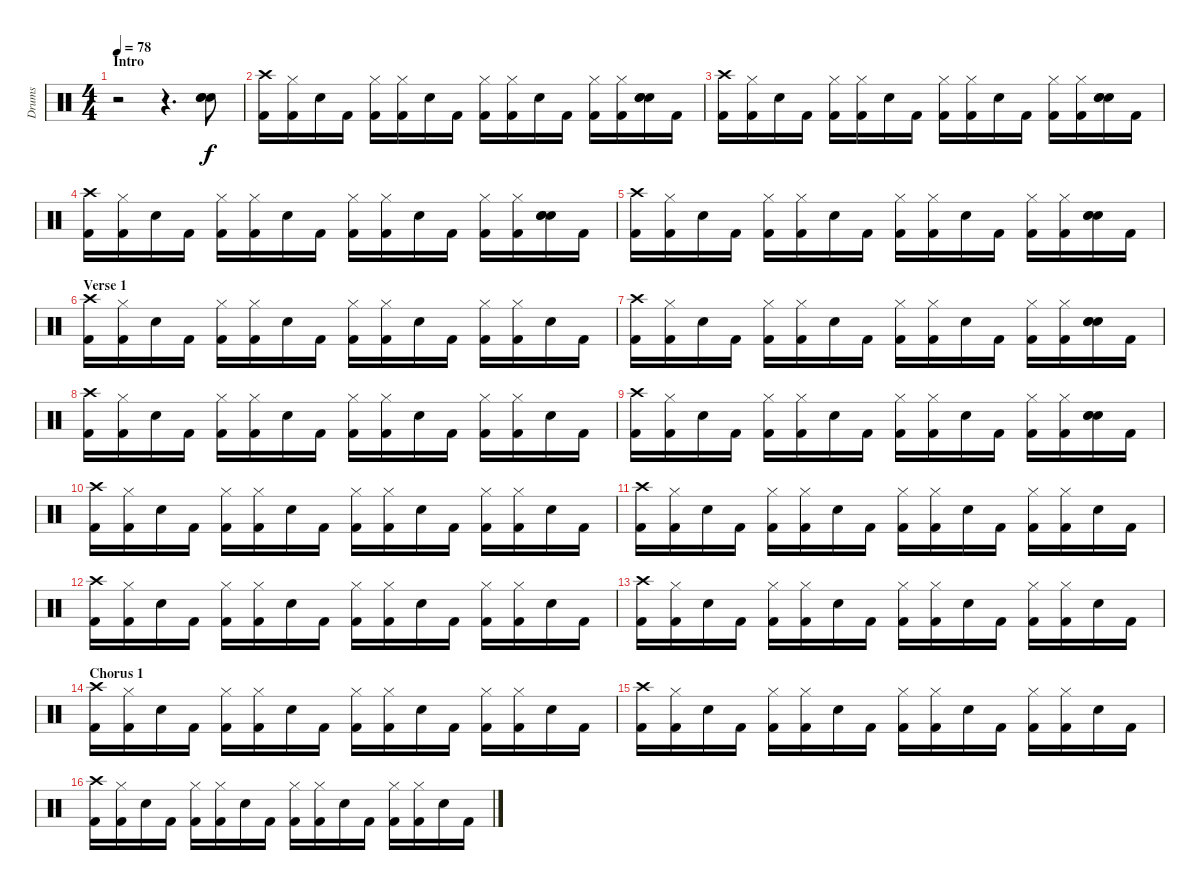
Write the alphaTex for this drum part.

\track ("Drums" "Drums") {instrument percussion}
\staff {score}
\articulation defaults
\ts (4 4)
\section ("" "Intro")
\tempo 78
\clef neutral
\ks c
r.2{dy f} r.4{d} ("Hand Clap (hit)" "Hand Clap (hit)" "Electric Snare (hit)").8 |
("Crash high (hit)" "Kick (hit) 2").16 ("Hi-Hat (closed)" "Kick (hit) 2").16 "Electric Snare (hit)".16 "Kick (hit) 2".16 ("Hi-Hat (closed)" "Kick (hit) 2").16 ("Hi-Hat (closed)" "Kick (hit) 2").16 "Electric Snare (hit)".16 "Kick (hit) 2".16 ("Hi-Hat (closed)" "Kick (hit) 2").16 ("Hi-Hat (closed)" "Kick (hit) 2").16 "Electric Snare (hit)".16 "Kick (hit) 2".16 ("Hi-Hat (closed)" "Kick (hit) 2").16 ("Hi-Hat (closed)" "Kick (hit) 2").16 ("Hand Clap (hit)" "Electric Snare (hit)" "Hand Clap (hit)").16 "Kick (hit) 2".16 |
("Crash high (hit)" "Kick (hit) 2").16 ("Hi-Hat (closed)" "Kick (hit) 2").16 "Electric Snare (hit)".16 "Kick (hit) 2".16 ("Hi-Hat (closed)" "Kick (hit) 2").16 ("Hi-Hat (closed)" "Kick (hit) 2").16 "Electric Snare (hit)".16 "Kick (hit) 2".16 ("Hi-Hat (closed)" "Kick (hit) 2").16 ("Hi-Hat (closed)" "Kick (hit) 2").16 "Electric Snare (hit)".16 "Kick (hit) 2".16 ("Hi-Hat (closed)" "Kick (hit) 2").16 ("Hi-Hat (closed)" "Kick (hit) 2").16 ("Hand Clap (hit)" "Electric Snare (hit)" "Hand Clap (hit)").16 "Kick (hit) 2".16 |
("Crash high (hit)" "Kick (hit) 2").16 ("Hi-Hat (closed)" "Kick (hit) 2").16 "Electric Snare (hit)".16 "Kick (hit) 2".16 ("Hi-Hat (closed)" "Kick (hit) 2").16 ("Hi-Hat (closed)" "Kick (hit) 2").16 "Electric Snare (hit)".16 "Kick (hit) 2".16 ("Hi-Hat (closed)" "Kick (hit) 2").16 ("Hi-Hat (closed)" "Kick (hit) 2").16 "Electric Snare (hit)".16 "Kick (hit) 2".16 ("Hi-Hat (closed)" "Kick (hit) 2").16 ("Hi-Hat (closed)" "Kick (hit) 2").16 ("Hand Clap (hit)" "Electric Snare (hit)" "Hand Clap (hit)").16 "Kick (hit) 2".16 |
("Crash high (hit)" "Kick (hit) 2").16 ("Hi-Hat (closed)" "Kick (hit) 2").16 "Electric Snare (hit)".16 "Kick (hit) 2".16 ("Hi-Hat (closed)" "Kick (hit) 2").16 ("Hi-Hat (closed)" "Kick (hit) 2").16 "Electric Snare (hit)".16 "Kick (hit) 2".16 ("Hi-Hat (closed)" "Kick (hit) 2").16 ("Hi-Hat (closed)" "Kick (hit) 2").16 "Electric Snare (hit)".16 "Kick (hit) 2".16 ("Hi-Hat (closed)" "Kick (hit) 2").16 ("Hi-Hat (closed)" "Kick (hit) 2").16 ("Hand Clap (hit)" "Electric Snare (hit)" "Hand Clap (hit)").16 "Kick (hit) 2".16 |
\section ("" "Verse 1")
("Crash high (hit)" "Kick (hit) 2").16 ("Hi-Hat (closed)" "Kick (hit) 2").16 "Electric Snare (hit)".16 "Kick (hit) 2".16 ("Hi-Hat (closed)" "Kick (hit) 2").16 ("Hi-Hat (closed)" "Kick (hit) 2").16 "Electric Snare (hit)".16 "Kick (hit) 2".16 ("Hi-Hat (closed)" "Kick (hit) 2").16 ("Hi-Hat (closed)" "Kick (hit) 2").16 "Electric Snare (hit)".16 "Kick (hit) 2".16 ("Hi-Hat (closed)" "Kick (hit) 2").16 ("Hi-Hat (closed)" "Kick (hit) 2").16 "Electric Snare (hit)".16 "Kick (hit) 2".16 |
("Crash high (hit)" "Kick (hit) 2").16 ("Hi-Hat (closed)" "Kick (hit) 2").16 "Electric Snare (hit)".16 "Kick (hit) 2".16 ("Hi-Hat (closed)" "Kick (hit) 2").16 ("Hi-Hat (closed)" "Kick (hit) 2").16 "Electric Snare (hit)".16 "Kick (hit) 2".16 ("Hi-Hat (closed)" "Kick (hit) 2").16 ("Hi-Hat (closed)" "Kick (hit) 2").16 "Electric Snare (hit)".16 "Kick (hit) 2".16 ("Hi-Hat (closed)" "Kick (hit) 2").16 ("Hi-Hat (closed)" "Kick (hit) 2").16 ("Hand Clap (hit)" "Electric Snare (hit)" "Hand Clap (hit)").16 "Kick (hit) 2".16 |
("Crash high (hit)" "Kick (hit) 2").16 ("Hi-Hat (closed)" "Kick (hit) 2").16 "Electric Snare (hit)".16 "Kick (hit) 2".16 ("Hi-Hat (closed)" "Kick (hit) 2").16 ("Hi-Hat (closed)" "Kick (hit) 2").16 "Electric Snare (hit)".16 "Kick (hit) 2".16 ("Hi-Hat (closed)" "Kick (hit) 2").16 ("Hi-Hat (closed)" "Kick (hit) 2").16 "Electric Snare (hit)".16 "Kick (hit) 2".16 ("Hi-Hat (closed)" "Kick (hit) 2").16 ("Hi-Hat (closed)" "Kick (hit) 2").16 "Electric Snare (hit)".16 "Kick (hit) 2".16 |
("Crash high (hit)" "Kick (hit) 2").16 ("Hi-Hat (closed)" "Kick (hit) 2").16 "Electric Snare (hit)".16 "Kick (hit) 2".16 ("Hi-Hat (closed)" "Kick (hit) 2").16 ("Hi-Hat (closed)" "Kick (hit) 2").16 "Electric Snare (hit)".16 "Kick (hit) 2".16 ("Hi-Hat (closed)" "Kick (hit) 2").16 ("Hi-Hat (closed)" "Kick (hit) 2").16 "Electric Snare (hit)".16 "Kick (hit) 2".16 ("Hi-Hat (closed)" "Kick (hit) 2").16 ("Hi-Hat (closed)" "Kick (hit) 2").16 ("Hand Clap (hit)" "Electric Snare (hit)" "Hand Clap (hit)").16 "Kick (hit) 2".16 |
("Crash high (hit)" "Kick (hit) 2").16 ("Hi-Hat (closed)" "Kick (hit) 2").16 "Electric Snare (hit)".16 "Kick (hit) 2".16 ("Hi-Hat (closed)" "Kick (hit) 2").16 ("Hi-Hat (closed)" "Kick (hit) 2").16 "Electric Snare (hit)".16 "Kick (hit) 2".16 ("Hi-Hat (closed)" "Kick (hit) 2").16 ("Hi-Hat (closed)" "Kick (hit) 2").16 "Electric Snare (hit)".16 "Kick (hit) 2".16 ("Hi-Hat (closed)" "Kick (hit) 2").16 ("Hi-Hat (closed)" "Kick (hit) 2").16 "Electric Snare (hit)".16 "Kick (hit) 2".16 |
("Crash high (hit)" "Kick (hit) 2").16 ("Hi-Hat (closed)" "Kick (hit) 2").16 "Electric Snare (hit)".16 "Kick (hit) 2".16 ("Hi-Hat (closed)" "Kick (hit) 2").16 ("Hi-Hat (closed)" "Kick (hit) 2").16 "Electric Snare (hit)".16 "Kick (hit) 2".16 ("Hi-Hat (closed)" "Kick (hit) 2").16 ("Hi-Hat (closed)" "Kick (hit) 2").16 "Electric Snare (hit)".16 "Kick (hit) 2".16 ("Hi-Hat (closed)" "Kick (hit) 2").16 ("Hi-Hat (closed)" "Kick (hit) 2").16 "Electric Snare (hit)".16 "Kick (hit) 2".16 |
("Crash high (hit)" "Kick (hit) 2").16 ("Hi-Hat (closed)" "Kick (hit) 2").16 "Electric Snare (hit)".16 "Kick (hit) 2".16 ("Hi-Hat (closed)" "Kick (hit) 2").16 ("Hi-Hat (closed)" "Kick (hit) 2").16 "Electric Snare (hit)".16 "Kick (hit) 2".16 ("Hi-Hat (closed)" "Kick (hit) 2").16 ("Hi-Hat (closed)" "Kick (hit) 2").16 "Electric Snare (hit)".16 "Kick (hit) 2".16 ("Hi-Hat (closed)" "Kick (hit) 2").16 ("Hi-Hat (closed)" "Kick (hit) 2").16 "Electric Snare (hit)".16 "Kick (hit) 2".16 |
("Crash high (hit)" "Kick (hit) 2").16 ("Hi-Hat (closed)" "Kick (hit) 2").16 "Electric Snare (hit)".16 "Kick (hit) 2".16 ("Hi-Hat (closed)" "Kick (hit) 2").16 ("Hi-Hat (closed)" "Kick (hit) 2").16 "Electric Snare (hit)".16 "Kick (hit) 2".16 ("Hi-Hat (closed)" "Kick (hit) 2").16 ("Hi-Hat (closed)" "Kick (hit) 2").16 "Electric Snare (hit)".16 "Kick (hit) 2".16 ("Hi-Hat (closed)" "Kick (hit) 2").16 ("Hi-Hat (closed)" "Kick (hit) 2").16 "Electric Snare (hit)".16 "Kick (hit) 2".16 |
\section ("" "Chorus 1")
("Crash high (hit)" "Kick (hit) 2").16 ("Hi-Hat (closed)" "Kick (hit) 2").16 "Electric Snare (hit)".16 "Kick (hit) 2".16 ("Hi-Hat (closed)" "Kick (hit) 2").16 ("Hi-Hat (closed)" "Kick (hit) 2").16 "Electric Snare (hit)".16 "Kick (hit) 2".16 ("Hi-Hat (closed)" "Kick (hit) 2").16 ("Hi-Hat (closed)" "Kick (hit) 2").16 "Electric Snare (hit)".16 "Kick (hit) 2".16 ("Hi-Hat (closed)" "Kick (hit) 2").16 ("Hi-Hat (closed)" "Kick (hit) 2").16 "Electric Snare (hit)".16 "Kick (hit) 2".16 |
("Crash high (hit)" "Kick (hit) 2").16 ("Hi-Hat (closed)" "Kick (hit) 2").16 "Electric Snare (hit)".16 "Kick (hit) 2".16 ("Hi-Hat (closed)" "Kick (hit) 2").16 ("Hi-Hat (closed)" "Kick (hit) 2").16 "Electric Snare (hit)".16 "Kick (hit) 2".16 ("Hi-Hat (closed)" "Kick (hit) 2").16 ("Hi-Hat (closed)" "Kick (hit) 2").16 "Electric Snare (hit)".16 "Kick (hit) 2".16 ("Hi-Hat (closed)" "Kick (hit) 2").16 ("Hi-Hat (closed)" "Kick (hit) 2").16 "Electric Snare (hit)".16 "Kick (hit) 2".16 |
("Crash high (hit)" "Kick (hit) 2").16 ("Hi-Hat (closed)" "Kick (hit) 2").16 "Electric Snare (hit)".16 "Kick (hit) 2".16 ("Hi-Hat (closed)" "Kick (hit) 2").16 ("Hi-Hat (closed)" "Kick (hit) 2").16 "Electric Snare (hit)".16 "Kick (hit) 2".16 ("Hi-Hat (closed)" "Kick (hit) 2").16 ("Hi-Hat (closed)" "Kick (hit) 2").16 "Electric Snare (hit)".16 "Kick (hit) 2".16 ("Hi-Hat (closed)" "Kick (hit) 2").16 ("Hi-Hat (closed)" "Kick (hit) 2").16 "Electric Snare (hit)".16 "Kick (hit) 2".16
